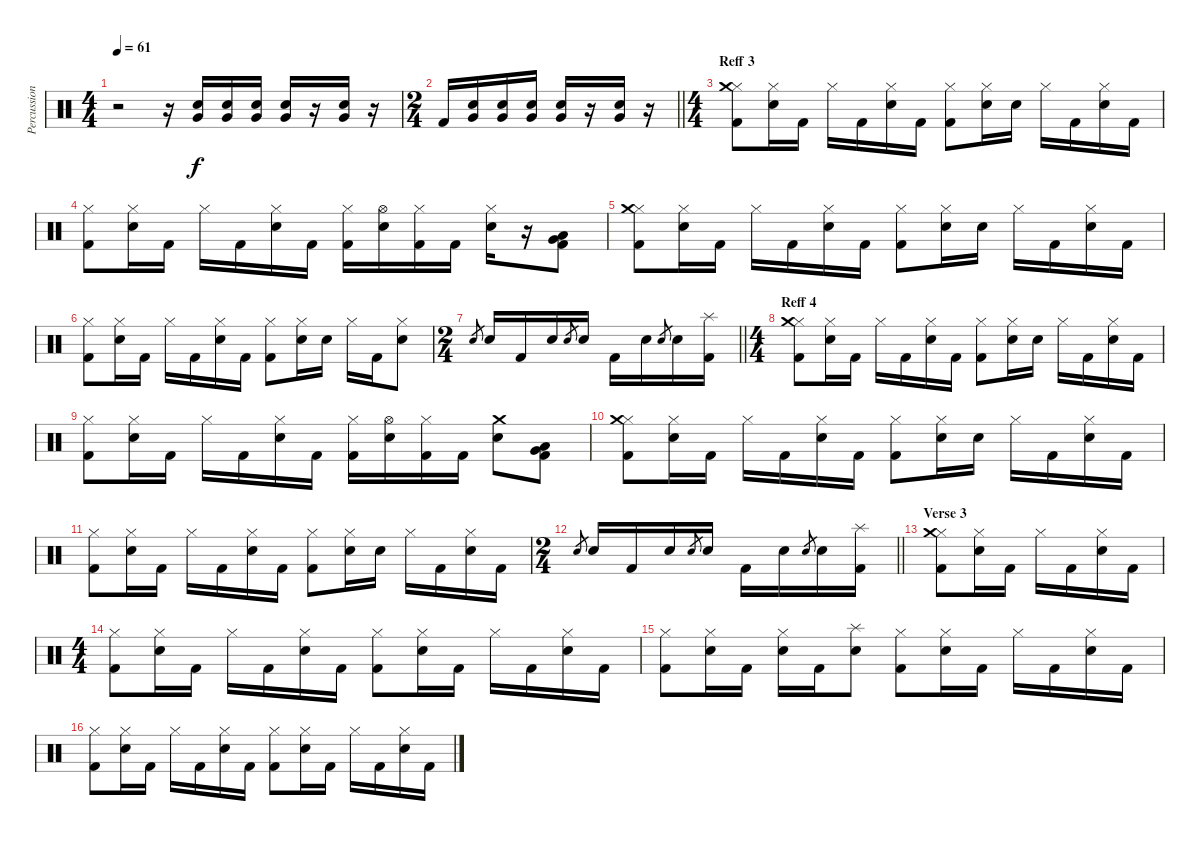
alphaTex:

\track ("Percussion 1" "Percussion") {instrument percussion}
\staff {score}
\articulation defaults
\ts (4 4)
\tempo 61
\clef neutral
\ks c
r.2{dy mp} r.16 ("Very Low Tom (hit)" "Snare (hit) 2").16{dy f} ("Very Low Tom (hit)" "Snare (hit) 2").16 ("Very Low Tom (hit)" "Snare (hit) 2").16 ("Very Low Tom (hit)" "Snare (hit) 2").16 r.16 ("Very Low Tom (hit)" "Snare (hit) 2").16 r.16 |
\ts (2 4)
\barLineRight lightlight "Kick (hit) 2".16
("Very Low Tom (hit)" "Snare (hit) 2").16 ("Very Low Tom (hit)" "Snare (hit) 2").16 ("Very Low Tom (hit)" "Snare (hit) 2").16 ("Very Low Tom (hit)" "Snare (hit) 2").16 r.16 ("Very Low Tom (hit)" "Snare (hit) 2").16 r.16 |
\ts (4 4)
\section ("" "Reff 3")
("Hi-Hat (closed)" "Crash medium (hit)" "Kick (hit) 2").8 ("Hi-Hat (closed)" "Snare (hit) 2").16 "Kick (hit) 2".16 "Hi-Hat (closed)".16 "Kick (hit) 2".16 ("Hi-Hat (closed)" "Snare (hit) 2").16 "Kick (hit) 2".16 ("Hi-Hat (closed)" "Kick (hit) 2").8 ("Hi-Hat (closed)" "Snare (hit) 2").16 "Snare (hit) 2".16 "Hi-Hat (closed)".16 "Kick (hit) 2".16 ("Hi-Hat (closed)" "Snare (hit) 2").16 "Kick (hit) 2".16 |
("Hi-Hat (closed)" "Kick (hit) 2").8 ("Hi-Hat (closed)" "Snare (hit) 2").16 "Kick (hit) 2".16 "Hi-Hat (closed)".16 "Kick (hit) 2".16 ("Hi-Hat (closed)" "Snare (hit) 2").16 "Kick (hit) 2".16 ("Hi-Hat (closed)" "Kick (hit) 2").16 ("Hi-Hat (open)" "Snare (hit) 2").16 ("Hi-Hat (closed)" "Kick (hit) 2").16 "Kick (hit) 2".16 ("Hi-Hat (closed)" "Snare (hit) 2").16 r.16 ("Low Floor Tom (hit)" "Very Low Tom (hit)" "Kick (hit) 2").8 |
("Hi-Hat (closed)" "Crash medium (hit)" "Kick (hit) 2").8 ("Hi-Hat (closed)" "Snare (hit) 2").16 "Kick (hit) 2".16 "Hi-Hat (closed)".16 "Kick (hit) 2".16 ("Hi-Hat (closed)" "Snare (hit) 2").16 "Kick (hit) 2".16 ("Hi-Hat (closed)" "Kick (hit) 2").8 ("Hi-Hat (closed)" "Snare (hit) 2").16 "Snare (hit) 2".16 "Hi-Hat (closed)".16 "Kick (hit) 2".16 ("Hi-Hat (closed)" "Snare (hit) 2").16 "Kick (hit) 2".16 |
("Hi-Hat (closed)" "Kick (hit) 2").8 ("Hi-Hat (closed)" "Snare (hit) 2").16 "Kick (hit) 2".16 "Hi-Hat (closed)".16 "Kick (hit) 2".16 ("Hi-Hat (closed)" "Snare (hit) 2").16 "Kick (hit) 2".16 ("Hi-Hat (closed)" "Kick (hit) 2").8 ("Hi-Hat (closed)" "Snare (hit) 2").16 "Snare (hit) 2".16 "Hi-Hat (closed)".16 "Kick (hit) 2".16 ("Hi-Hat (closed)" "Snare (hit) 2").8 |
\ts (2 4)
\barLineRight lightlight "Snare (hit) 2".8{gr} "Snare (hit) 2".16 "Kick (hit) 2".16 "Electric Snare (hit)".16 "Snare (hit) 2".8{gr} "Snare (hit) 2".16 "Kick (hit) 2".16 "Electric Snare (hit)".16 "Snare (hit) 2".8{gr} "Snare (hit) 2".16
("Splash (hit)" "Kick (hit) 2").16 |
\ts (4 4)
\section ("" "Reff 4")
("Hi-Hat (closed)" "Crash medium (hit)" "Kick (hit) 2").8 ("Hi-Hat (closed)" "Snare (hit) 2").16 "Kick (hit) 2".16 "Hi-Hat (closed)".16 "Kick (hit) 2".16 ("Hi-Hat (closed)" "Snare (hit) 2").16 "Kick (hit) 2".16 ("Hi-Hat (closed)" "Kick (hit) 2").8 ("Hi-Hat (closed)" "Snare (hit) 2").16 "Snare (hit) 2".16 "Hi-Hat (closed)".16 "Kick (hit) 2".16 ("Hi-Hat (closed)" "Snare (hit) 2").16 "Kick (hit) 2".16 |
("Hi-Hat (closed)" "Kick (hit) 2").8 ("Hi-Hat (closed)" "Snare (hit) 2").16 "Kick (hit) 2".16 "Hi-Hat (closed)".16 "Kick (hit) 2".16 ("Hi-Hat (closed)" "Snare (hit) 2").16 "Kick (hit) 2".16 ("Hi-Hat (closed)" "Kick (hit) 2").16 ("Hi-Hat (open)" "Snare (hit) 2").16 ("Hi-Hat (closed)" "Kick (hit) 2").16 "Kick (hit) 2".16 ("Crash medium (hit)" "Snare (hit) 2").8 ("Low Floor Tom (hit)" "Very Low Tom (hit)" "Kick (hit) 2").8 |
("Hi-Hat (closed)" "Crash medium (hit)" "Kick (hit) 2").8 ("Hi-Hat (closed)" "Snare (hit) 2").16 "Kick (hit) 2".16 "Hi-Hat (closed)".16 "Kick (hit) 2".16 ("Hi-Hat (closed)" "Snare (hit) 2").16 "Kick (hit) 2".16 ("Hi-Hat (closed)" "Kick (hit) 2").8 ("Hi-Hat (closed)" "Snare (hit) 2").16 "Snare (hit) 2".16 "Hi-Hat (closed)".16 "Kick (hit) 2".16 ("Hi-Hat (closed)" "Snare (hit) 2").16 "Kick (hit) 2".16 |
("Hi-Hat (closed)" "Kick (hit) 2").8 ("Hi-Hat (closed)" "Snare (hit) 2").16 "Kick (hit) 2".16 "Hi-Hat (closed)".16 "Kick (hit) 2".16 ("Hi-Hat (closed)" "Snare (hit) 2").16 "Kick (hit) 2".16 ("Hi-Hat (closed)" "Kick (hit) 2").8 ("Hi-Hat (closed)" "Snare (hit) 2").16 "Snare (hit) 2".16 "Hi-Hat (closed)".16 "Kick (hit) 2".16 ("Hi-Hat (closed)" "Snare (hit) 2").16 "Kick (hit) 2".16 |
\ts (2 4)
\barLineRight lightlight "Snare (hit) 2".8{gr} "Snare (hit) 2".16 "Kick (hit) 2".16 "Electric Snare (hit)".16 "Snare (hit) 2".8{gr} "Snare (hit) 2".16 "Kick (hit) 2".16 "Electric Snare (hit)".16 "Snare (hit) 2".8{gr} "Snare (hit) 2".16
("Splash (hit)" "Kick (hit) 2").16 |
\section ("" "Verse 3")
("Hi-Hat (closed)" "Crash medium (hit)" "Kick (hit) 2").8 ("Hi-Hat (closed)" "Snare (hit) 2").16 "Kick (hit) 2".16 "Hi-Hat (closed)".16 "Kick (hit) 2".16 ("Hi-Hat (closed)" "Snare (hit) 2").16 "Kick (hit) 2".16 |
\ts (4 4)
("Hi-Hat (closed)" "Kick (hit) 2").8 ("Hi-Hat (closed)" "Snare (hit) 2").16 "Kick (hit) 2".16 "Hi-Hat (closed)".16 "Kick (hit) 2".16 ("Hi-Hat (closed)" "Snare (hit) 2").16 "Kick (hit) 2".16 ("Hi-Hat (closed)" "Kick (hit) 2").8 ("Hi-Hat (closed)" "Snare (hit) 2").16 "Kick (hit) 2".16 "Hi-Hat (closed)".16 "Kick (hit) 2".16 ("Hi-Hat (closed)" "Snare (hit) 2").16 "Kick (hit) 2".16 |
("Hi-Hat (closed)" "Kick (hit) 2").8 ("Hi-Hat (closed)" "Snare (hit) 2").16 "Kick (hit) 2".16 ("Hi-Hat (closed)" "Snare (hit) 2").16 "Kick (hit) 2".16 ("Splash (hit)" "Snare (hit) 2").8 ("Hi-Hat (closed)" "Kick (hit) 2").8 ("Hi-Hat (closed)" "Snare (hit) 2").16 "Kick (hit) 2".16 "Hi-Hat (closed)".16 "Kick (hit) 2".16 ("Hi-Hat (closed)" "Snare (hit) 2").16 "Kick (hit) 2".16 |
("Hi-Hat (closed)" "Kick (hit) 2").8 ("Hi-Hat (closed)" "Snare (hit) 2").16 "Kick (hit) 2".16 "Hi-Hat (closed)".16 "Kick (hit) 2".16 ("Hi-Hat (closed)" "Snare (hit) 2").16 "Kick (hit) 2".16 ("Hi-Hat (closed)" "Kick (hit) 2").8 ("Hi-Hat (closed)" "Snare (hit) 2").16 "Kick (hit) 2".16 "Hi-Hat (closed)".16 "Kick (hit) 2".16 ("Hi-Hat (closed)" "Snare (hit) 2").16 "Kick (hit) 2".16
